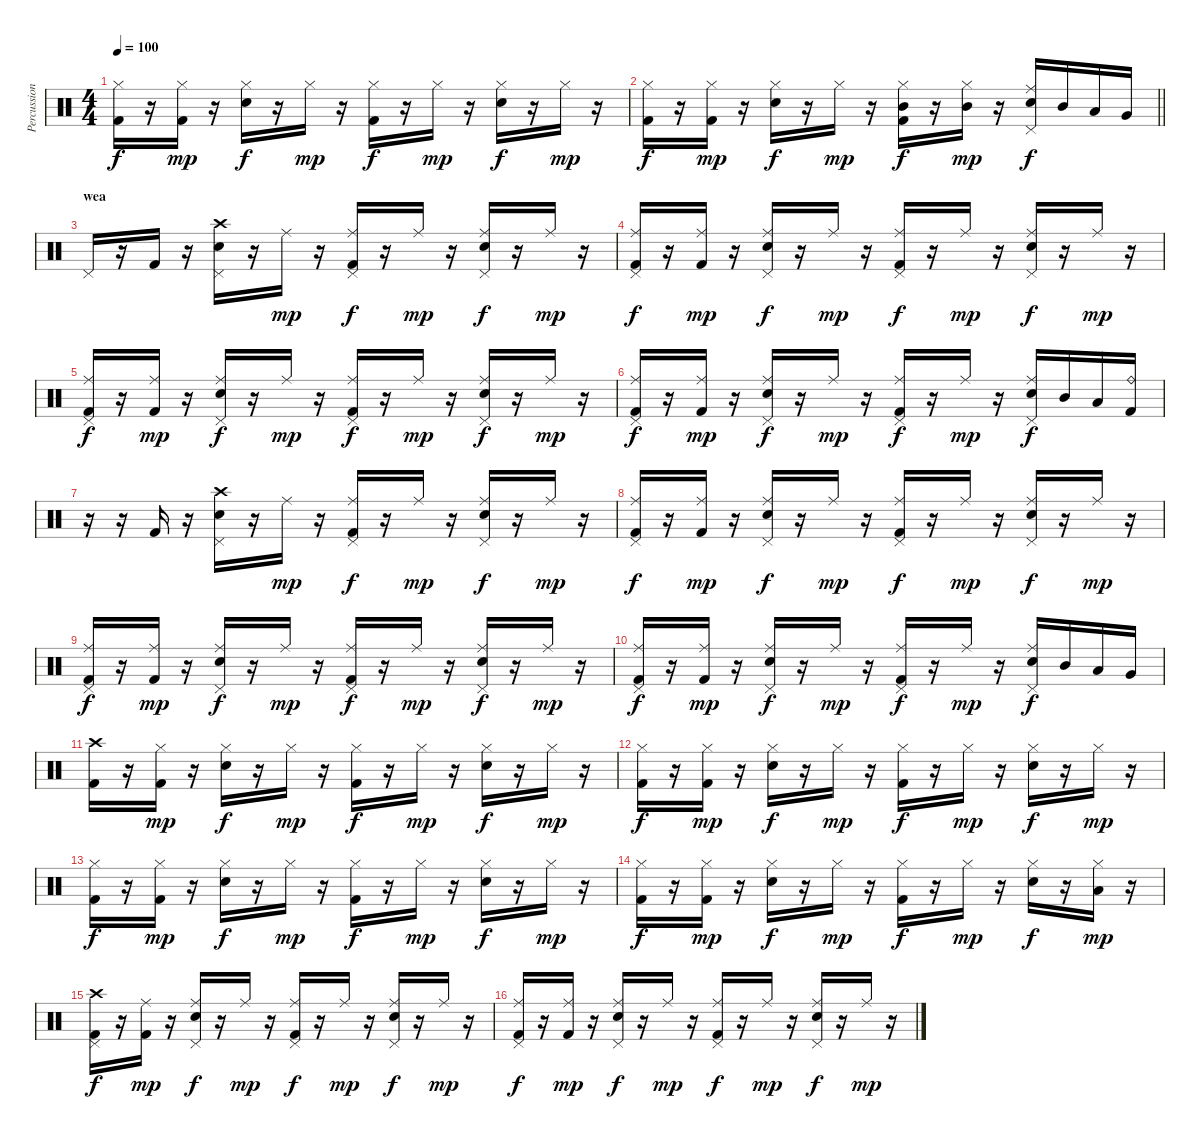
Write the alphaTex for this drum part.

\track ("Percussion" "Percussion") {instrument percussion}
\staff {score}
\articulation defaults
\ts (4 4)
\tempo 100
\clef neutral
\ks c
("Hi-Hat (closed)" "Kick (hit) 2").16{dy f} r.16 ("Hi-Hat (closed)" "Kick (hit) 2").16{dy mp} r.16 ("Hi-Hat (closed)" "Electric Snare (hit)").16{dy f} r.16 "Hi-Hat (closed)".16{dy mp} r.16 ("Hi-Hat (closed)" "Kick (hit) 2").16{dy f} r.16 "Hi-Hat (closed)".16{dy mp} r.16 ("Hi-Hat (closed)" "Electric Snare (hit)").16{dy f} r.16 "Hi-Hat (closed)".16{dy mp} r.16 |
\barLineRight lightlight
("Hi-Hat (closed)" "Kick (hit) 2").16{dy f} r.16 ("Hi-Hat (closed)" "Kick (hit) 2").16{dy mp} r.16 ("Hi-Hat (closed)" "Electric Snare (hit)").16{dy f} r.16 "Hi-Hat (closed)".16{dy mp} r.16 ("Hi-Hat (closed)" "Mid Tom (hit)" "Kick (hit) 2").16{dy f} r.16 ("Hi-Hat (closed)" "Mid Tom (hit)").16{dy mp} r.16 ("Ride (middle)" "Electric Snare (hit)" "Pedal Hi-Hat (hit)").16{dy f} "Mid Tom (hit)".16 "Low Tom (hit)".16 "Very Low Tom (hit)".16 |
\section ("" "wea")
"Pedal Hi-Hat (hit)".16 r.16 "Kick (hit) 2".16 r.16 ("Crash high (hit)" "Electric Snare (hit)" "Pedal Hi-Hat (hit)").16 r.16 "Ride (middle)".16{dy mp} r.16 ("Ride (middle)" "Pedal Hi-Hat (hit)" "Kick (hit) 2").16{dy f} r.16 "Ride (middle)".16{dy mp} r.16 ("Ride (middle)" "Electric Snare (hit)" "Pedal Hi-Hat (hit)").16{dy f} r.16 "Ride (middle)".16{dy mp} r.16 |
("Ride (middle)" "Pedal Hi-Hat (hit)" "Kick (hit) 2").16{dy f} r.16 ("Ride (middle)" "Kick (hit) 2").16{dy mp} r.16 ("Ride (middle)" "Electric Snare (hit)" "Pedal Hi-Hat (hit)").16{dy f} r.16 "Ride (middle)".16{dy mp} r.16 ("Ride (middle)" "Pedal Hi-Hat (hit)" "Kick (hit) 2").16{dy f} r.16 "Ride (middle)".16{dy mp} r.16 ("Ride (middle)" "Electric Snare (hit)" "Pedal Hi-Hat (hit)").16{dy f} r.16 "Ride (middle)".16{dy mp} r.16 |
("Ride (middle)" "Pedal Hi-Hat (hit)" "Kick (hit) 2").16{dy f} r.16 ("Ride (middle)" "Kick (hit) 2").16{dy mp} r.16 ("Ride (middle)" "Electric Snare (hit)" "Pedal Hi-Hat (hit)").16{dy f} r.16 "Ride (middle)".16{dy mp} r.16 ("Ride (middle)" "Pedal Hi-Hat (hit)" "Kick (hit) 2").16{dy f} r.16 "Ride (middle)".16{dy mp} r.16 ("Ride (middle)" "Electric Snare (hit)" "Pedal Hi-Hat (hit)").16{dy f} r.16 "Ride (middle)".16{dy mp} r.16 |
("Ride (middle)" "Pedal Hi-Hat (hit)" "Kick (hit) 2").16{dy f} r.16 ("Ride (middle)" "Kick (hit) 2").16{dy mp} r.16 ("Ride (middle)" "Electric Snare (hit)" "Pedal Hi-Hat (hit)").16{dy f} r.16 "Ride (middle)".16{dy mp} r.16 ("Ride (middle)" "Pedal Hi-Hat (hit)" "Kick (hit) 2").16{dy f} r.16 "Ride (middle)".16{dy mp} r.16 ("Ride (middle)" "Electric Snare (hit)" "Pedal Hi-Hat (hit)").16{dy f} "Mid Tom (hit)".16 "Low Tom (hit)".16 ("Ride (bell)" "Kick (hit) 2").16 |
r.16 r.16 "Kick (hit) 2".16 r.16 ("Crash high (hit)" "Electric Snare (hit)" "Pedal Hi-Hat (hit)").16 r.16 "Ride (middle)".16{dy mp} r.16 ("Ride (middle)" "Pedal Hi-Hat (hit)" "Kick (hit) 2").16{dy f} r.16 "Ride (middle)".16{dy mp} r.16 ("Ride (middle)" "Electric Snare (hit)" "Pedal Hi-Hat (hit)").16{dy f} r.16 "Ride (middle)".16{dy mp} r.16 |
("Ride (middle)" "Pedal Hi-Hat (hit)" "Kick (hit) 2").16{dy f} r.16 ("Ride (middle)" "Kick (hit) 2").16{dy mp} r.16 ("Ride (middle)" "Electric Snare (hit)" "Pedal Hi-Hat (hit)").16{dy f} r.16 "Ride (middle)".16{dy mp} r.16 ("Ride (middle)" "Pedal Hi-Hat (hit)" "Kick (hit) 2").16{dy f} r.16 "Ride (middle)".16{dy mp} r.16 ("Ride (middle)" "Electric Snare (hit)" "Pedal Hi-Hat (hit)").16{dy f} r.16 "Ride (middle)".16{dy mp} r.16 |
("Ride (middle)" "Pedal Hi-Hat (hit)" "Kick (hit) 2").16{dy f} r.16 ("Ride (middle)" "Kick (hit) 2").16{dy mp} r.16 ("Ride (middle)" "Electric Snare (hit)" "Pedal Hi-Hat (hit)").16{dy f} r.16 "Ride (middle)".16{dy mp} r.16 ("Ride (middle)" "Pedal Hi-Hat (hit)" "Kick (hit) 2").16{dy f} r.16 "Ride (middle)".16{dy mp} r.16 ("Ride (middle)" "Electric Snare (hit)" "Pedal Hi-Hat (hit)").16{dy f} r.16 "Ride (middle)".16{dy mp} r.16 |
("Ride (middle)" "Pedal Hi-Hat (hit)" "Kick (hit) 2").16{dy f} r.16 ("Ride (middle)" "Kick (hit) 2").16{dy mp} r.16 ("Ride (middle)" "Electric Snare (hit)" "Pedal Hi-Hat (hit)").16{dy f} r.16 "Ride (middle)".16{dy mp} r.16 ("Ride (middle)" "Pedal Hi-Hat (hit)" "Kick (hit) 2").16{dy f} r.16 "Ride (middle)".16{dy mp} r.16 ("Ride (middle)" "Electric Snare (hit)" "Pedal Hi-Hat (hit)").16{dy f} "Mid Tom (hit)".16 "Low Tom (hit)".16 "Very Low Tom (hit)".16 |
("Crash high (hit)" "Kick (hit) 2").16 r.16 ("Hi-Hat (closed)" "Kick (hit) 2").16{dy mp} r.16 ("Hi-Hat (closed)" "Electric Snare (hit)").16{dy f} r.16 "Hi-Hat (closed)".16{dy mp} r.16 ("Hi-Hat (closed)" "Kick (hit) 2").16{dy f} r.16 "Hi-Hat (closed)".16{dy mp} r.16 ("Hi-Hat (closed)" "Electric Snare (hit)").16{dy f} r.16 "Hi-Hat (closed)".16{dy mp} r.16 |
("Hi-Hat (closed)" "Kick (hit) 2").16{dy f} r.16 ("Hi-Hat (closed)" "Kick (hit) 2").16{dy mp} r.16 ("Hi-Hat (closed)" "Electric Snare (hit)").16{dy f} r.16 "Hi-Hat (closed)".16{dy mp} r.16 ("Hi-Hat (closed)" "Kick (hit) 2").16{dy f} r.16 "Hi-Hat (closed)".16{dy mp} r.16 ("Hi-Hat (closed)" "Electric Snare (hit)").16{dy f} r.16 "Hi-Hat (closed)".16{dy mp} r.16 |
("Hi-Hat (closed)" "Kick (hit) 2").16{dy f} r.16 ("Hi-Hat (closed)" "Kick (hit) 2").16{dy mp} r.16 ("Hi-Hat (closed)" "Electric Snare (hit)").16{dy f} r.16 "Hi-Hat (closed)".16{dy mp} r.16 ("Hi-Hat (closed)" "Kick (hit) 2").16{dy f} r.16 "Hi-Hat (closed)".16{dy mp} r.16 ("Hi-Hat (closed)" "Electric Snare (hit)").16{dy f} r.16 "Hi-Hat (closed)".16{dy mp} r.16 |
("Hi-Hat (closed)" "Kick (hit) 2").16{dy f} r.16 ("Hi-Hat (closed)" "Kick (hit) 2").16{dy mp} r.16 ("Hi-Hat (closed)" "Electric Snare (hit)").16{dy f} r.16 "Hi-Hat (closed)".16{dy mp} r.16 ("Hi-Hat (closed)" "Kick (hit) 2").16{dy f} r.16 "Hi-Hat (closed)".16{dy mp} r.16 ("Hi-Hat (closed)" "Electric Snare (hit)").16{dy f} r.16 ("Hi-Hat (closed)" "Low Tom (hit)").16{dy mp} r.16 |
("Crash high (hit)" "Pedal Hi-Hat (hit)" "Kick (hit) 2").16{dy f} r.16 ("Ride (middle)" "Kick (hit) 2").16{dy mp} r.16 ("Ride (middle)" "Electric Snare (hit)" "Pedal Hi-Hat (hit)").16{dy f} r.16 "Ride (middle)".16{dy mp} r.16 ("Ride (middle)" "Pedal Hi-Hat (hit)" "Kick (hit) 2").16{dy f} r.16 "Ride (middle)".16{dy mp} r.16 ("Ride (middle)" "Electric Snare (hit)" "Pedal Hi-Hat (hit)").16{dy f} r.16 "Ride (middle)".16{dy mp} r.16 |
("Ride (middle)" "Pedal Hi-Hat (hit)" "Kick (hit) 2").16{dy f} r.16 ("Ride (middle)" "Kick (hit) 2").16{dy mp} r.16 ("Ride (middle)" "Electric Snare (hit)" "Pedal Hi-Hat (hit)").16{dy f} r.16 "Ride (middle)".16{dy mp} r.16 ("Ride (middle)" "Pedal Hi-Hat (hit)" "Kick (hit) 2").16{dy f} r.16 "Ride (middle)".16{dy mp} r.16 ("Ride (middle)" "Electric Snare (hit)" "Pedal Hi-Hat (hit)").16{dy f} r.16 "Ride (middle)".16{dy mp} r.16
